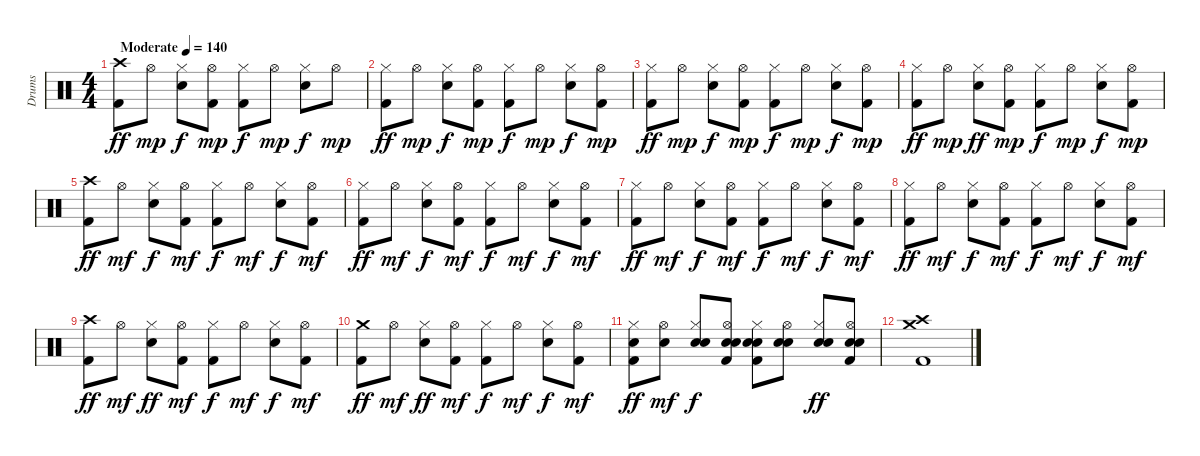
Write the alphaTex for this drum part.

\track ("Drums" "Drums") {instrument percussion}
\staff {score}
\articulation defaults
\ts (4 4)
\tempo (140 "Moderate")
\clef neutral
\ks c
("Crash high (hit)" "Kick (hit) 2").8{dy ff} "Hi-Hat (open)".8{dy mp} ("Snare (hit) 2" "Hi-Hat (closed)").8{dy f} ("Hi-Hat (open)" "Kick (hit) 2").8{dy mp} ("Hi-Hat (closed)" "Kick (hit) 2").8{dy f} "Hi-Hat (open)".8{dy mp} ("Snare (hit) 2" "Hi-Hat (closed)").8{dy f} "Hi-Hat (open)".8{dy mp} |
("Hi-Hat (closed)" "Kick (hit) 2").8{dy ff} "Hi-Hat (open)".8{dy mp} ("Snare (hit) 2" "Hi-Hat (closed)").8{dy f} ("Hi-Hat (open)" "Kick (hit) 2").8{dy mp} ("Hi-Hat (closed)" "Kick (hit) 2").8{dy f} "Hi-Hat (open)".8{dy mp} ("Snare (hit) 2" "Hi-Hat (closed)").8{dy f} ("Hi-Hat (open)" "Kick (hit) 2").8{dy mp} |
("Hi-Hat (closed)" "Kick (hit) 2").8{dy ff} "Hi-Hat (open)".8{dy mp} ("Snare (hit) 2" "Hi-Hat (closed)").8{dy f} ("Hi-Hat (open)" "Kick (hit) 2").8{dy mp} ("Hi-Hat (closed)" "Kick (hit) 2").8{dy f} "Hi-Hat (open)".8{dy mp} ("Snare (hit) 2" "Hi-Hat (closed)").8{dy f} ("Hi-Hat (open)" "Kick (hit) 2").8{dy mp} |
("Hi-Hat (closed)" "Kick (hit) 2").8{dy ff} "Hi-Hat (open)".8{dy mp} ("Snare (hit) 2" "Hi-Hat (closed)").8{dy ff} ("Hi-Hat (open)" "Kick (hit) 2").8{dy mp} ("Hi-Hat (closed)" "Kick (hit) 2").8{dy f} "Hi-Hat (open)".8{dy mp} ("Snare (hit) 2" "Hi-Hat (closed)").8{dy f} ("Hi-Hat (open)" "Kick (hit) 2").8{dy mp} |
("Crash high (hit)" "Kick (hit) 2").8{dy ff} "Hi-Hat (open)".8{dy mf} ("Snare (hit) 2" "Hi-Hat (closed)").8{dy f} ("Hi-Hat (open)" "Kick (hit) 2").8{dy mf} ("Hi-Hat (closed)" "Kick (hit) 2").8{dy f} "Hi-Hat (open)".8{dy mf} ("Snare (hit) 2" "Hi-Hat (closed)").8{dy f} ("Hi-Hat (open)" "Kick (hit) 2").8{dy mf} |
("Hi-Hat (closed)" "Kick (hit) 2").8{dy ff} "Hi-Hat (open)".8{dy mf} ("Snare (hit) 2" "Hi-Hat (closed)").8{dy f} ("Hi-Hat (open)" "Kick (hit) 2").8{dy mf} ("Hi-Hat (closed)" "Kick (hit) 2").8{dy f} "Hi-Hat (open)".8{dy mf} ("Snare (hit) 2" "Hi-Hat (closed)").8{dy f} ("Hi-Hat (open)" "Kick (hit) 2").8{dy mf} |
("Hi-Hat (closed)" "Kick (hit) 2").8{dy ff} "Hi-Hat (open)".8{dy mf} ("Snare (hit) 2" "Hi-Hat (closed)").8{dy f} ("Hi-Hat (open)" "Kick (hit) 2").8{dy mf} ("Hi-Hat (closed)" "Kick (hit) 2").8{dy f} "Hi-Hat (open)".8{dy mf} ("Snare (hit) 2" "Hi-Hat (closed)").8{dy f} ("Hi-Hat (open)" "Kick (hit) 2").8{dy mf} |
("Hi-Hat (closed)" "Kick (hit) 2").8{dy ff} "Hi-Hat (open)".8{dy mf} ("Snare (hit) 2" "Hi-Hat (closed)").8{dy f} ("Hi-Hat (open)" "Kick (hit) 2").8{dy mf} ("Hi-Hat (closed)" "Kick (hit) 2").8{dy f} "Hi-Hat (open)".8{dy mf} ("Snare (hit) 2" "Hi-Hat (closed)").8{dy f} ("Hi-Hat (open)" "Kick (hit) 2").8{dy mf} |
("Crash high (hit)" "Kick (hit) 2").8{dy ff} "Hi-Hat (open)".8{dy mf} ("Snare (hit) 2" "Hi-Hat (closed)").8{dy ff} ("Hi-Hat (open)" "Kick (hit) 2").8{dy mf} ("Hi-Hat (closed)" "Kick (hit) 2").8{dy f} "Hi-Hat (open)".8{dy mf} ("Snare (hit) 2" "Hi-Hat (closed)").8{dy f} ("Hi-Hat (open)" "Kick (hit) 2").8{dy mf} |
("Crash medium (hit)" "Kick (hit) 2").8{dy ff} "Hi-Hat (open)".8{dy mf} ("Snare (hit) 2" "Hi-Hat (closed)").8{dy ff} ("Hi-Hat (open)" "Kick (hit) 2").8{dy mf} ("Hi-Hat (closed)" "Kick (hit) 2").8{dy f} "Hi-Hat (open)".8{dy mf} ("Snare (hit) 2" "Hi-Hat (closed)").8{dy f} ("Hi-Hat (open)" "Kick (hit) 2").8{dy mf} |
("Snare (hit) 2" "Hi-Hat (closed)" "Kick (hit) 2").8{dy ff} ("Snare (hit) 2" "Hi-Hat (open)").8{dy mf} ("Electric Snare (hit)" "Snare (hit) 2" "Hi-Hat (closed)").8{dy f} ("Electric Snare (hit)" "Snare (hit) 2" "Hi-Hat (open)" "Kick (hit) 2").8 ("Electric Snare (hit)" "Snare (hit) 2" "Hi-Hat (closed)" "Kick (hit) 2").8 ("Electric Snare (hit)" "Snare (hit) 2" "Hi-Hat (open)").8 ("Electric Snare (hit)" "Snare (hit) 2" "Hi-Hat (closed)").8{dy ff} ("Electric Snare (hit)" "Snare (hit) 2" "Hi-Hat (open)" "Kick (hit) 2").8 |
("Crash high (hit)" "Crash medium (hit)" "Kick (hit) 2").1
